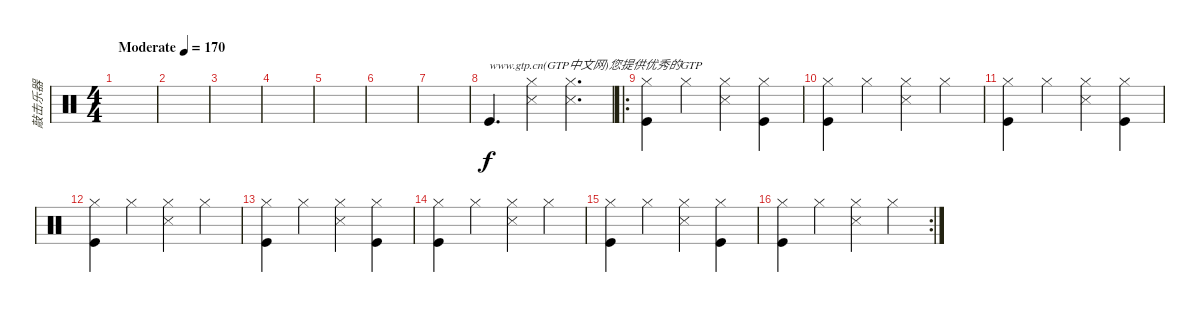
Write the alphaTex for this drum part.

\track ("敲击乐器" "敲击乐器") {instrument percussion}
\staff {score}
\articulation defaults
\ts (4 4)
\tempo (170 "Moderate")
\clef neutral
\ks c
|
|
|
|
|
|
|
"Kick (hit)".4{d txt "www.gtp.cn(GTP中文网)您提供优秀的GTP"} ("Hi-Hat (closed)" "Snare (side stick) 3").4 ("Hi-Hat (closed)" "Snare (side stick) 3").4{d} |
\ro
("Hi-Hat (closed)" "Kick (hit)").4 "Hi-Hat (closed)".4 ("Hi-Hat (closed)" "Snare (side stick) 3").4 ("Hi-Hat (closed)" "Kick (hit)").4 |
("Hi-Hat (closed)" "Kick (hit)").4 "Hi-Hat (closed)".4 ("Hi-Hat (closed)" "Snare (side stick) 3").4 "Hi-Hat (closed)".4 |
("Hi-Hat (closed)" "Kick (hit)").4 "Hi-Hat (closed)".4 ("Hi-Hat (closed)" "Snare (side stick) 3").4 ("Hi-Hat (closed)" "Kick (hit)").4 |
("Hi-Hat (closed)" "Kick (hit)").4 "Hi-Hat (closed)".4 ("Hi-Hat (closed)" "Snare (side stick) 3").4 "Hi-Hat (closed)".4 |
("Hi-Hat (closed)" "Kick (hit)").4 "Hi-Hat (closed)".4 ("Hi-Hat (closed)" "Snare (side stick) 3").4 ("Hi-Hat (closed)" "Kick (hit)").4 |
("Hi-Hat (closed)" "Kick (hit)").4 "Hi-Hat (closed)".4 ("Hi-Hat (closed)" "Snare (side stick) 3").4 "Hi-Hat (closed)".4 |
("Hi-Hat (closed)" "Kick (hit)").4 "Hi-Hat (closed)".4 ("Hi-Hat (closed)" "Snare (side stick) 3").4 ("Hi-Hat (closed)" "Kick (hit)").4 |
\rc 2
("Hi-Hat (closed)" "Kick (hit)").4 "Hi-Hat (closed)".4 ("Hi-Hat (closed)" "Snare (side stick) 3").4 "Hi-Hat (closed)".4
